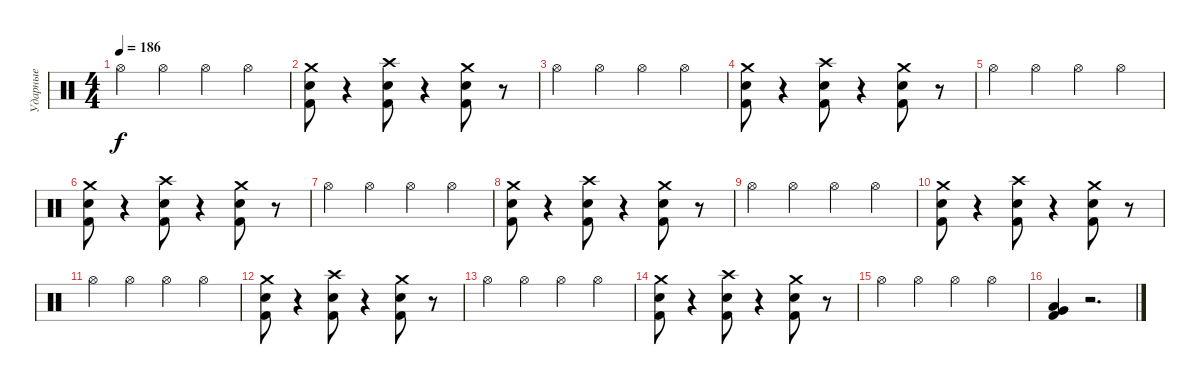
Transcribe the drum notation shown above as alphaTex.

\track ("Ударные" "Ударные") {instrument percussion}
\staff {score}
\articulation defaults
\ts (4 4)
\tempo 186
\clef neutral
\ks c "Hi-Hat (open)".4{dy f} "Hi-Hat (open)".4 "Hi-Hat (open)".4 "Hi-Hat (open)".4
|
("Kick (hit) 2" "Snare (hit) 2" "Crash medium (hit)").8 r.4 ("Kick (hit) 2" "Snare (hit) 2" "Crash high (hit)").8 r.4 ("Kick (hit) 2" "Snare (hit) 2" "Crash medium (hit)").8 r.8 |
"Hi-Hat (open)".4 "Hi-Hat (open)".4 "Hi-Hat (open)".4 "Hi-Hat (open)".4 |
("Kick (hit) 2" "Snare (hit) 2" "Crash medium (hit)").8 r.4 ("Kick (hit) 2" "Snare (hit) 2" "Crash high (hit)").8 r.4 ("Kick (hit) 2" "Snare (hit) 2" "Crash medium (hit)").8 r.8 |
"Hi-Hat (open)".4 "Hi-Hat (open)".4 "Hi-Hat (open)".4 "Hi-Hat (open)".4 |
("Kick (hit) 2" "Snare (hit) 2" "Crash medium (hit)").8 r.4 ("Kick (hit) 2" "Snare (hit) 2" "Crash high (hit)").8 r.4 ("Kick (hit) 2" "Snare (hit) 2" "Crash medium (hit)").8 r.8 |
"Hi-Hat (open)".4 "Hi-Hat (open)".4 "Hi-Hat (open)".4 "Hi-Hat (open)".4 |
("Kick (hit) 2" "Snare (hit) 2" "Crash medium (hit)").8 r.4 ("Kick (hit) 2" "Snare (hit) 2" "Crash high (hit)").8 r.4 ("Kick (hit) 2" "Snare (hit) 2" "Crash medium (hit)").8 r.8 |
"Hi-Hat (open)".4 "Hi-Hat (open)".4 "Hi-Hat (open)".4 "Hi-Hat (open)".4 |
("Kick (hit) 2" "Snare (hit) 2" "Crash medium (hit)").8 r.4 ("Kick (hit) 2" "Snare (hit) 2" "Crash high (hit)").8 r.4 ("Kick (hit) 2" "Snare (hit) 2" "Crash medium (hit)").8 r.8 |
"Hi-Hat (open)".4 "Hi-Hat (open)".4 "Hi-Hat (open)".4 "Hi-Hat (open)".4 |
("Kick (hit) 2" "Snare (hit) 2" "Crash medium (hit)").8 r.4 ("Kick (hit) 2" "Snare (hit) 2" "Crash high (hit)").8 r.4 ("Kick (hit) 2" "Snare (hit) 2" "Crash medium (hit)").8 r.8 |
"Hi-Hat (open)".4 "Hi-Hat (open)".4 "Hi-Hat (open)".4 "Hi-Hat (open)".4 |
("Kick (hit) 2" "Snare (hit) 2" "Crash medium (hit)").8 r.4 ("Kick (hit) 2" "Snare (hit) 2" "Crash high (hit)").8 r.4 ("Kick (hit) 2" "Snare (hit) 2" "Crash medium (hit)").8 r.8 |
"Hi-Hat (open)".4 "Hi-Hat (open)".4 "Hi-Hat (open)".4 "Hi-Hat (open)".4 |
("Kick (hit) 2" "Very Low Tom (hit)" "Low Floor Tom (hit)").4 r.2{d}
